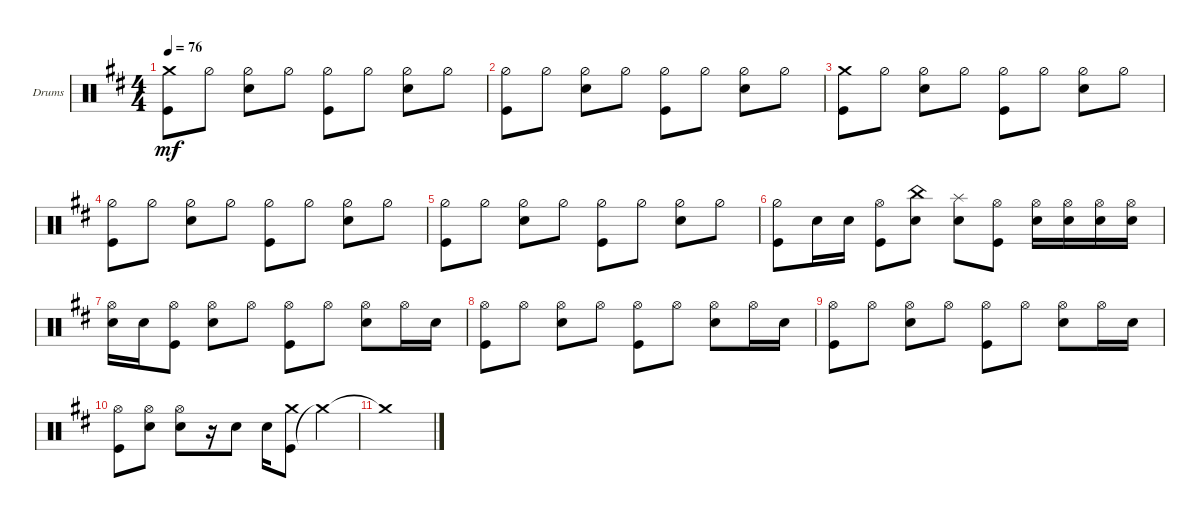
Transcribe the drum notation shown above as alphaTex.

\defaultSystemsLayout 4
\bracketExtendMode groupsimilarinstruments
\firstSystemTrackNameOrientation horizontal
\otherSystemsTrackNameOrientation horizontal
\track ("Drums" "Drums") {instrument percussion}
\staff {score}
\articulation defaults
\ts (4 4)
\tempo 76
\clef neutral
\ks bminor
("Kick (hit)" "Crash medium (hit)").8{dy mf} "Hi-Hat (half)".8 ("Hi-Hat (half)" "Snare (hit) 2").8 "Hi-Hat (half)".8 ("Hi-Hat (half)" "Kick (hit)").8 "Hi-Hat (half)".8 ("Hi-Hat (half)" "Snare (hit) 2").8 "Hi-Hat (half)".8 |
("Hi-Hat (half)" "Kick (hit)").8 "Hi-Hat (half)".8 ("Hi-Hat (half)" "Snare (hit) 2").8 "Hi-Hat (half)".8 ("Hi-Hat (half)" "Kick (hit)").8 "Hi-Hat (half)".8 ("Hi-Hat (half)" "Snare (hit) 2").8 "Hi-Hat (half)".8 |
("Kick (hit)" "Crash medium (hit)").8 "Hi-Hat (half)".8 ("Hi-Hat (half)" "Snare (hit) 2").8 "Hi-Hat (half)".8 ("Hi-Hat (half)" "Kick (hit)").8 "Hi-Hat (half)".8 ("Hi-Hat (half)" "Snare (hit) 2").8 "Hi-Hat (half)".8 |
("Hi-Hat (half)" "Kick (hit)").8 "Hi-Hat (half)".8 ("Hi-Hat (half)" "Snare (hit) 2").8 "Hi-Hat (half)".8 ("Hi-Hat (half)" "Kick (hit)").8 "Hi-Hat (half)".8 ("Hi-Hat (half)" "Snare (hit) 2").8 "Hi-Hat (half)".8 |
("Hi-Hat (half)" "Kick (hit)").8 "Hi-Hat (half)".8 ("Hi-Hat (half)" "Snare (hit) 2").8 "Hi-Hat (half)".8 ("Hi-Hat (half)" "Kick (hit)").8 "Hi-Hat (half)".8 ("Hi-Hat (half)" "Snare (hit) 2").8 "Hi-Hat (half)".8 |
("Hi-Hat (half)" "Kick (hit)").8 "Snare (hit) 2".16 "Snare (hit) 2".16 ("Kick (hit)" "Hi-Hat (open)").8 ("Snare (hit) 2" "China (hit)").8 ("Snare (hit) 2" "Splash (hit)").8 ("Kick (hit)" "Hi-Hat (open)").8 ("Snare (hit) 2" "Hi-Hat (open)").16 ("Snare (hit) 2" "Hi-Hat (open)").16 ("Snare (hit) 2" "Hi-Hat (open)").16 ("Snare (hit) 2" "Hi-Hat (open)").16 |
("Hi-Hat (open)" "Snare (hit) 2").16 "Snare (hit) 2".16 ("Hi-Hat (open)" "Kick (hit)").8 ("Hi-Hat (open)" "Snare (hit) 2").8 "Hi-Hat (open)".8 ("Hi-Hat (open)" "Kick (hit)").8 "Hi-Hat (open)".8 ("Hi-Hat (open)" "Snare (hit) 2").8 "Hi-Hat (open)".16 "Snare (hit) 2".16 |
("Hi-Hat (open)" "Kick (hit)").8 "Hi-Hat (open)".8 ("Hi-Hat (open)" "Snare (hit) 2").8 "Hi-Hat (open)".8 ("Hi-Hat (open)" "Kick (hit)").8 "Hi-Hat (open)".8 ("Hi-Hat (open)" "Snare (hit) 2").8 "Hi-Hat (open)".16 "Snare (hit) 2".16 |
("Hi-Hat (open)" "Kick (hit)").8 "Hi-Hat (open)".8 ("Hi-Hat (open)" "Snare (hit) 2").8 "Hi-Hat (open)".8 ("Hi-Hat (open)" "Kick (hit)").8 "Hi-Hat (open)".8 ("Hi-Hat (open)" "Snare (hit) 2").8 "Hi-Hat (open)".16 "Snare (hit) 2".16 |
("Hi-Hat (open)" "Kick (hit)").8 ("Snare (hit) 2" "Hi-Hat (open)").8 ("Snare (hit) 2" "Hi-Hat (open)").8 r.16 "Snare (hit) 2".8 "Snare (hit) 2".16 ("Kick (hit)" "Crash medium (hit)").8 "Crash medium (hit)"{t}.4 |
"Crash medium (hit)"{t}.1
